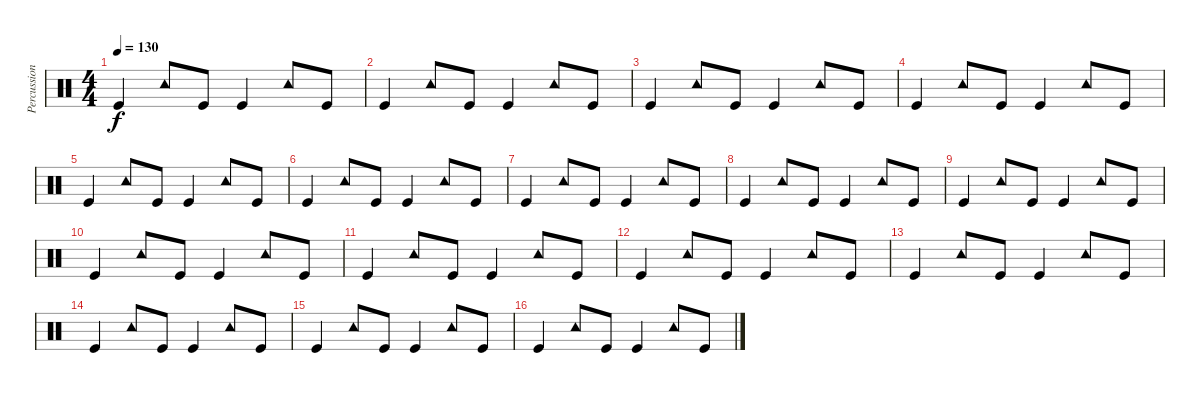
\track ("Percussion" "Percussion") {instrument percussion}
\staff {score}
\articulation defaults
\ts (4 4)
\tempo 130
\clef neutral
\ks c "Kick (hit)".4{dy f volume 10} "Tambourine (hit)".8 "Kick (hit)".8 "Kick (hit)".4 "Tambourine (hit)".8 "Kick (hit)".8
|
"Kick (hit)".4 "Tambourine (hit)".8 "Kick (hit)".8 "Kick (hit)".4 "Tambourine (hit)".8 "Kick (hit)".8 |
"Kick (hit)".4 "Tambourine (hit)".8 "Kick (hit)".8 "Kick (hit)".4 "Tambourine (hit)".8 "Kick (hit)".8 |
"Kick (hit)".4 "Tambourine (hit)".8 "Kick (hit)".8 "Kick (hit)".4 "Tambourine (hit)".8 "Kick (hit)".8 |
"Kick (hit)".4 "Tambourine (hit)".8 "Kick (hit)".8 "Kick (hit)".4 "Tambourine (hit)".8 "Kick (hit)".8 |
"Kick (hit)".4 "Tambourine (hit)".8 "Kick (hit)".8 "Kick (hit)".4 "Tambourine (hit)".8 "Kick (hit)".8 |
"Kick (hit)".4 "Tambourine (hit)".8 "Kick (hit)".8 "Kick (hit)".4 "Tambourine (hit)".8 "Kick (hit)".8 |
"Kick (hit)".4 "Tambourine (hit)".8 "Kick (hit)".8 "Kick (hit)".4 "Tambourine (hit)".8 "Kick (hit)".8 |
"Kick (hit)".4 "Tambourine (hit)".8 "Kick (hit)".8 "Kick (hit)".4 "Tambourine (hit)".8 "Kick (hit)".8 |
"Kick (hit)".4 "Tambourine (hit)".8 "Kick (hit)".8 "Kick (hit)".4 "Tambourine (hit)".8 "Kick (hit)".8 |
"Kick (hit)".4 "Tambourine (hit)".8 "Kick (hit)".8 "Kick (hit)".4 "Tambourine (hit)".8 "Kick (hit)".8 |
"Kick (hit)".4 "Tambourine (hit)".8 "Kick (hit)".8 "Kick (hit)".4 "Tambourine (hit)".8 "Kick (hit)".8 |
"Kick (hit)".4 "Tambourine (hit)".8 "Kick (hit)".8 "Kick (hit)".4 "Tambourine (hit)".8 "Kick (hit)".8 |
"Kick (hit)".4 "Tambourine (hit)".8 "Kick (hit)".8 "Kick (hit)".4 "Tambourine (hit)".8 "Kick (hit)".8 |
"Kick (hit)".4 "Tambourine (hit)".8 "Kick (hit)".8 "Kick (hit)".4 "Tambourine (hit)".8 "Kick (hit)".8 |
"Kick (hit)".4 "Tambourine (hit)".8 "Kick (hit)".8 "Kick (hit)".4 "Tambourine (hit)".8 "Kick (hit)".8
